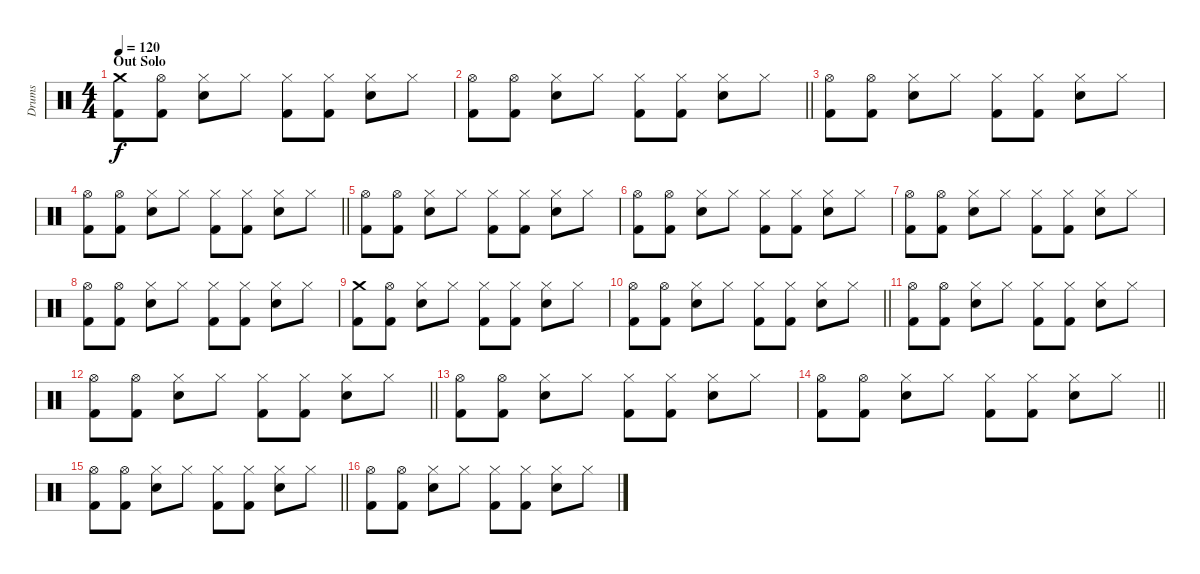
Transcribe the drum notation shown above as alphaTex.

\track ("Drums" "Drums") {instrument percussion}
\staff {score}
\articulation defaults
\ts (4 4)
\section ("" "Out Solo")
\tempo 120
\clef neutral
\ks c
("Crash medium (hit)" "Kick (hit) 2").8{dy f} ("Hi-Hat (open)" "Kick (hit) 2").8 ("Hi-Hat (closed)" "Electric Snare (hit)").8 "Hi-Hat (closed)".8 ("Hi-Hat (closed)" "Kick (hit) 2").8 ("Hi-Hat (closed)" "Kick (hit) 2").8 ("Hi-Hat (closed)" "Electric Snare (hit)").8 "Hi-Hat (closed)".8 |
\barLineRight lightlight
("Hi-Hat (open)" "Kick (hit) 2").8 ("Hi-Hat (open)" "Kick (hit) 2").8 ("Hi-Hat (closed)" "Electric Snare (hit)").8 "Hi-Hat (closed)".8 ("Hi-Hat (closed)" "Kick (hit) 2").8 ("Hi-Hat (closed)" "Kick (hit) 2").8 ("Hi-Hat (closed)" "Electric Snare (hit)").8 "Hi-Hat (closed)".8 |
("Hi-Hat (open)" "Kick (hit) 2").8 ("Hi-Hat (open)" "Kick (hit) 2").8 ("Hi-Hat (closed)" "Electric Snare (hit)").8 "Hi-Hat (closed)".8 ("Hi-Hat (closed)" "Kick (hit) 2").8 ("Hi-Hat (closed)" "Kick (hit) 2").8 ("Hi-Hat (closed)" "Electric Snare (hit)").8 "Hi-Hat (closed)".8 |
\barLineRight lightlight
("Hi-Hat (open)" "Kick (hit) 2").8 ("Hi-Hat (open)" "Kick (hit) 2").8 ("Hi-Hat (closed)" "Electric Snare (hit)").8 "Hi-Hat (closed)".8 ("Hi-Hat (closed)" "Kick (hit) 2").8 ("Hi-Hat (closed)" "Kick (hit) 2").8 ("Hi-Hat (closed)" "Electric Snare (hit)").8 "Hi-Hat (closed)".8 |
("Hi-Hat (open)" "Kick (hit) 2").8 ("Hi-Hat (open)" "Kick (hit) 2").8 ("Hi-Hat (closed)" "Electric Snare (hit)").8 "Hi-Hat (closed)".8 ("Hi-Hat (closed)" "Kick (hit) 2").8 ("Hi-Hat (closed)" "Kick (hit) 2").8 ("Hi-Hat (closed)" "Electric Snare (hit)").8 "Hi-Hat (closed)".8 |
("Hi-Hat (open)" "Kick (hit) 2").8 ("Hi-Hat (open)" "Kick (hit) 2").8 ("Hi-Hat (closed)" "Electric Snare (hit)").8 "Hi-Hat (closed)".8 ("Hi-Hat (closed)" "Kick (hit) 2").8 ("Hi-Hat (closed)" "Kick (hit) 2").8 ("Hi-Hat (closed)" "Electric Snare (hit)").8 "Hi-Hat (closed)".8 |
("Hi-Hat (open)" "Kick (hit) 2").8 ("Hi-Hat (open)" "Kick (hit) 2").8 ("Hi-Hat (closed)" "Electric Snare (hit)").8 "Hi-Hat (closed)".8 ("Hi-Hat (closed)" "Kick (hit) 2").8 ("Hi-Hat (closed)" "Kick (hit) 2").8 ("Hi-Hat (closed)" "Electric Snare (hit)").8 "Hi-Hat (closed)".8 |
("Hi-Hat (open)" "Kick (hit) 2").8 ("Hi-Hat (open)" "Kick (hit) 2").8 ("Hi-Hat (closed)" "Electric Snare (hit)").8 "Hi-Hat (closed)".8 ("Hi-Hat (closed)" "Kick (hit) 2").8 ("Hi-Hat (closed)" "Kick (hit) 2").8 ("Hi-Hat (closed)" "Electric Snare (hit)").8 "Hi-Hat (closed)".8 |
("Crash medium (hit)" "Kick (hit) 2").8 ("Hi-Hat (open)" "Kick (hit) 2").8 ("Hi-Hat (closed)" "Electric Snare (hit)").8 "Hi-Hat (closed)".8 ("Hi-Hat (closed)" "Kick (hit) 2").8 ("Hi-Hat (closed)" "Kick (hit) 2").8 ("Hi-Hat (closed)" "Electric Snare (hit)").8 "Hi-Hat (closed)".8 |
\barLineRight lightlight
("Hi-Hat (open)" "Kick (hit) 2").8 ("Hi-Hat (open)" "Kick (hit) 2").8 ("Hi-Hat (closed)" "Electric Snare (hit)").8 "Hi-Hat (closed)".8 ("Hi-Hat (closed)" "Kick (hit) 2").8 ("Hi-Hat (closed)" "Kick (hit) 2").8 ("Hi-Hat (closed)" "Electric Snare (hit)").8 "Hi-Hat (closed)".8 |
("Hi-Hat (open)" "Kick (hit) 2").8 ("Hi-Hat (open)" "Kick (hit) 2").8 ("Hi-Hat (closed)" "Electric Snare (hit)").8 "Hi-Hat (closed)".8 ("Hi-Hat (closed)" "Kick (hit) 2").8 ("Hi-Hat (closed)" "Kick (hit) 2").8 ("Hi-Hat (closed)" "Electric Snare (hit)").8 "Hi-Hat (closed)".8 |
\barLineRight lightlight
("Hi-Hat (open)" "Kick (hit) 2").8 ("Hi-Hat (open)" "Kick (hit) 2").8 ("Hi-Hat (closed)" "Electric Snare (hit)").8 "Hi-Hat (closed)".8 ("Hi-Hat (closed)" "Kick (hit) 2").8 ("Hi-Hat (closed)" "Kick (hit) 2").8 ("Hi-Hat (closed)" "Electric Snare (hit)").8 "Hi-Hat (closed)".8 |
("Hi-Hat (open)" "Kick (hit) 2").8 ("Hi-Hat (open)" "Kick (hit) 2").8 ("Hi-Hat (closed)" "Electric Snare (hit)").8 "Hi-Hat (closed)".8 ("Hi-Hat (closed)" "Kick (hit) 2").8 ("Hi-Hat (closed)" "Kick (hit) 2").8 ("Hi-Hat (closed)" "Electric Snare (hit)").8 "Hi-Hat (closed)".8 |
\barLineRight lightlight
("Hi-Hat (open)" "Kick (hit) 2").8 ("Hi-Hat (open)" "Kick (hit) 2").8 ("Hi-Hat (closed)" "Electric Snare (hit)").8 "Hi-Hat (closed)".8 ("Hi-Hat (closed)" "Kick (hit) 2").8 ("Hi-Hat (closed)" "Kick (hit) 2").8 ("Hi-Hat (closed)" "Electric Snare (hit)").8 "Hi-Hat (closed)".8 |
\barLineRight lightlight
("Hi-Hat (open)" "Kick (hit) 2").8 ("Hi-Hat (open)" "Kick (hit) 2").8 ("Hi-Hat (closed)" "Electric Snare (hit)").8 "Hi-Hat (closed)".8 ("Hi-Hat (closed)" "Kick (hit) 2").8 ("Hi-Hat (closed)" "Kick (hit) 2").8 ("Hi-Hat (closed)" "Electric Snare (hit)").8 "Hi-Hat (closed)".8 |
("Hi-Hat (open)" "Kick (hit) 2").8 ("Hi-Hat (open)" "Kick (hit) 2").8 ("Hi-Hat (closed)" "Electric Snare (hit)").8 "Hi-Hat (closed)".8 ("Hi-Hat (closed)" "Kick (hit) 2").8 ("Hi-Hat (closed)" "Kick (hit) 2").8 ("Hi-Hat (closed)" "Electric Snare (hit)").8 "Hi-Hat (closed)".8
